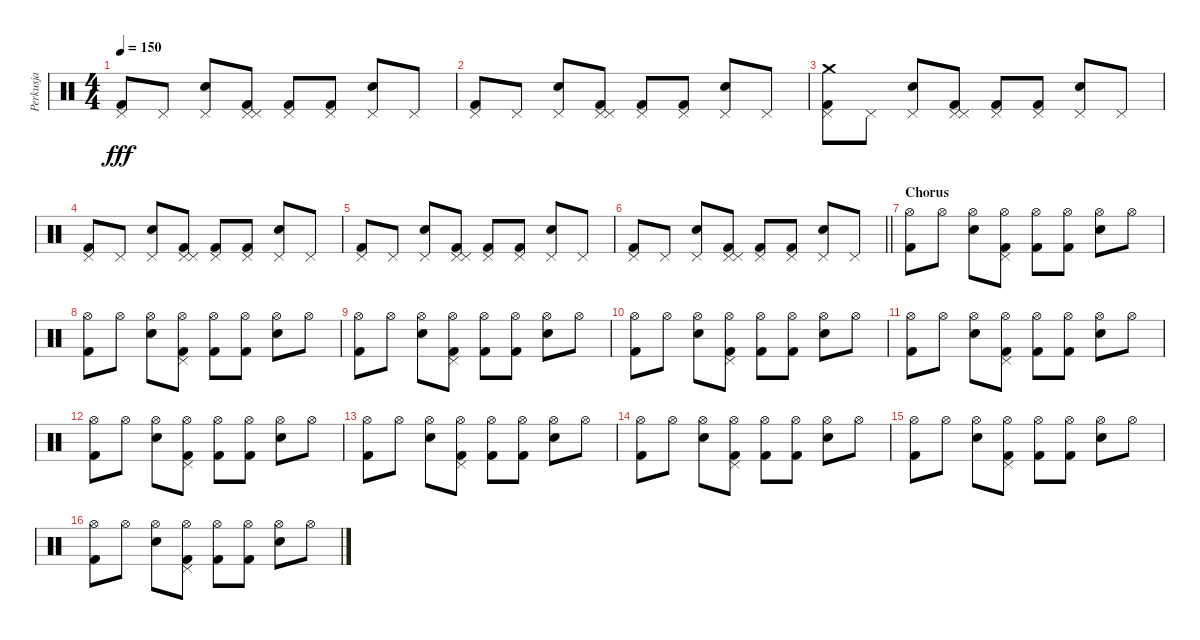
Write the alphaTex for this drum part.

\track ("Perkusja" "Perkusja") {instrument percussion}
\staff {score}
\articulation defaults
\ts (4 4)
\tempo 150
\clef neutral
\ks c
("Pedal Hi-Hat (hit)" "Kick (hit) 2").8{dy fff} "Pedal Hi-Hat (hit)".8 ("Pedal Hi-Hat (hit)" "Electric Snare (hit)").8 ("Pedal Hi-Hat (hit)" "Kick (hit) 2" "Pedal Hi-Hat (hit)").8 ("Pedal Hi-Hat (hit)" "Kick (hit) 2").8 ("Pedal Hi-Hat (hit)" "Kick (hit) 2").8 ("Pedal Hi-Hat (hit)" "Electric Snare (hit)").8 "Pedal Hi-Hat (hit)".8 |
("Pedal Hi-Hat (hit)" "Kick (hit) 2").8 "Pedal Hi-Hat (hit)".8 ("Pedal Hi-Hat (hit)" "Electric Snare (hit)").8 ("Pedal Hi-Hat (hit)" "Kick (hit) 2" "Pedal Hi-Hat (hit)").8 ("Pedal Hi-Hat (hit)" "Kick (hit) 2").8 ("Pedal Hi-Hat (hit)" "Kick (hit) 2").8 ("Pedal Hi-Hat (hit)" "Electric Snare (hit)").8 "Pedal Hi-Hat (hit)".8 |
("Pedal Hi-Hat (hit)" "Kick (hit) 2" "Crash medium (hit)").8 "Pedal Hi-Hat (hit)".8 ("Pedal Hi-Hat (hit)" "Electric Snare (hit)").8 ("Pedal Hi-Hat (hit)" "Kick (hit) 2" "Pedal Hi-Hat (hit)").8 ("Pedal Hi-Hat (hit)" "Kick (hit) 2").8 ("Pedal Hi-Hat (hit)" "Kick (hit) 2").8 ("Pedal Hi-Hat (hit)" "Electric Snare (hit)").8 "Pedal Hi-Hat (hit)".8 |
("Pedal Hi-Hat (hit)" "Kick (hit) 2").8 "Pedal Hi-Hat (hit)".8 ("Pedal Hi-Hat (hit)" "Electric Snare (hit)").8 ("Pedal Hi-Hat (hit)" "Kick (hit) 2" "Pedal Hi-Hat (hit)").8 ("Pedal Hi-Hat (hit)" "Kick (hit) 2").8 ("Pedal Hi-Hat (hit)" "Kick (hit) 2").8 ("Pedal Hi-Hat (hit)" "Electric Snare (hit)").8 "Pedal Hi-Hat (hit)".8 |
("Pedal Hi-Hat (hit)" "Kick (hit) 2").8 "Pedal Hi-Hat (hit)".8 ("Pedal Hi-Hat (hit)" "Electric Snare (hit)").8 ("Pedal Hi-Hat (hit)" "Kick (hit) 2" "Pedal Hi-Hat (hit)").8 ("Pedal Hi-Hat (hit)" "Kick (hit) 2").8 ("Pedal Hi-Hat (hit)" "Kick (hit) 2").8 ("Pedal Hi-Hat (hit)" "Electric Snare (hit)").8 "Pedal Hi-Hat (hit)".8 |
\barLineRight lightlight
("Pedal Hi-Hat (hit)" "Kick (hit) 2").8 "Pedal Hi-Hat (hit)".8 ("Pedal Hi-Hat (hit)" "Electric Snare (hit)").8 ("Pedal Hi-Hat (hit)" "Kick (hit) 2" "Pedal Hi-Hat (hit)").8 ("Pedal Hi-Hat (hit)" "Kick (hit) 2").8 ("Pedal Hi-Hat (hit)" "Kick (hit) 2").8 ("Pedal Hi-Hat (hit)" "Electric Snare (hit)").8 "Pedal Hi-Hat (hit)".8 |
\section ("" "Chorus")
("Hi-Hat (open)" "Kick (hit) 2").8 "Hi-Hat (open)".8 ("Hi-Hat (open)" "Electric Snare (hit)").8 ("Hi-Hat (open)" "Kick (hit) 2" "Pedal Hi-Hat (hit)").8 ("Hi-Hat (open)" "Kick (hit) 2").8 ("Hi-Hat (open)" "Kick (hit) 2").8 ("Hi-Hat (open)" "Electric Snare (hit)").8 "Hi-Hat (open)".8 |
("Hi-Hat (open)" "Kick (hit) 2").8 "Hi-Hat (open)".8 ("Hi-Hat (open)" "Electric Snare (hit)").8 ("Hi-Hat (open)" "Kick (hit) 2" "Pedal Hi-Hat (hit)").8 ("Hi-Hat (open)" "Kick (hit) 2").8 ("Hi-Hat (open)" "Kick (hit) 2").8 ("Hi-Hat (open)" "Electric Snare (hit)").8 "Hi-Hat (open)".8 |
("Hi-Hat (open)" "Kick (hit) 2").8 "Hi-Hat (open)".8 ("Hi-Hat (open)" "Electric Snare (hit)").8 ("Hi-Hat (open)" "Kick (hit) 2" "Pedal Hi-Hat (hit)").8 ("Hi-Hat (open)" "Kick (hit) 2").8 ("Hi-Hat (open)" "Kick (hit) 2").8 ("Hi-Hat (open)" "Electric Snare (hit)").8 "Hi-Hat (open)".8 |
("Hi-Hat (open)" "Kick (hit) 2").8 "Hi-Hat (open)".8 ("Hi-Hat (open)" "Electric Snare (hit)").8 ("Hi-Hat (open)" "Kick (hit) 2" "Pedal Hi-Hat (hit)").8 ("Hi-Hat (open)" "Kick (hit) 2").8 ("Hi-Hat (open)" "Kick (hit) 2").8 ("Hi-Hat (open)" "Electric Snare (hit)").8 "Hi-Hat (open)".8 |
("Hi-Hat (open)" "Kick (hit) 2").8 "Hi-Hat (open)".8 ("Hi-Hat (open)" "Electric Snare (hit)").8 ("Hi-Hat (open)" "Kick (hit) 2" "Pedal Hi-Hat (hit)").8 ("Hi-Hat (open)" "Kick (hit) 2").8 ("Hi-Hat (open)" "Kick (hit) 2").8 ("Hi-Hat (open)" "Electric Snare (hit)").8 "Hi-Hat (open)".8 |
("Hi-Hat (open)" "Kick (hit) 2").8 "Hi-Hat (open)".8 ("Hi-Hat (open)" "Electric Snare (hit)").8 ("Hi-Hat (open)" "Kick (hit) 2" "Pedal Hi-Hat (hit)").8 ("Hi-Hat (open)" "Kick (hit) 2").8 ("Hi-Hat (open)" "Kick (hit) 2").8 ("Hi-Hat (open)" "Electric Snare (hit)").8 "Hi-Hat (open)".8 |
("Hi-Hat (open)" "Kick (hit) 2").8 "Hi-Hat (open)".8 ("Hi-Hat (open)" "Electric Snare (hit)").8 ("Hi-Hat (open)" "Kick (hit) 2" "Pedal Hi-Hat (hit)").8 ("Hi-Hat (open)" "Kick (hit) 2").8 ("Hi-Hat (open)" "Kick (hit) 2").8 ("Hi-Hat (open)" "Electric Snare (hit)").8 "Hi-Hat (open)".8 |
("Hi-Hat (open)" "Kick (hit) 2").8 "Hi-Hat (open)".8 ("Hi-Hat (open)" "Electric Snare (hit)").8 ("Hi-Hat (open)" "Kick (hit) 2" "Pedal Hi-Hat (hit)").8 ("Hi-Hat (open)" "Kick (hit) 2").8 ("Hi-Hat (open)" "Kick (hit) 2").8 ("Hi-Hat (open)" "Electric Snare (hit)").8 "Hi-Hat (open)".8 |
("Hi-Hat (open)" "Kick (hit) 2").8 "Hi-Hat (open)".8 ("Hi-Hat (open)" "Electric Snare (hit)").8 ("Hi-Hat (open)" "Kick (hit) 2" "Pedal Hi-Hat (hit)").8 ("Hi-Hat (open)" "Kick (hit) 2").8 ("Hi-Hat (open)" "Kick (hit) 2").8 ("Hi-Hat (open)" "Electric Snare (hit)").8 "Hi-Hat (open)".8 |
("Hi-Hat (open)" "Kick (hit) 2").8 "Hi-Hat (open)".8 ("Hi-Hat (open)" "Electric Snare (hit)").8 ("Hi-Hat (open)" "Kick (hit) 2" "Pedal Hi-Hat (hit)").8 ("Hi-Hat (open)" "Kick (hit) 2").8 ("Hi-Hat (open)" "Kick (hit) 2").8 ("Hi-Hat (open)" "Electric Snare (hit)").8 "Hi-Hat (open)".8
